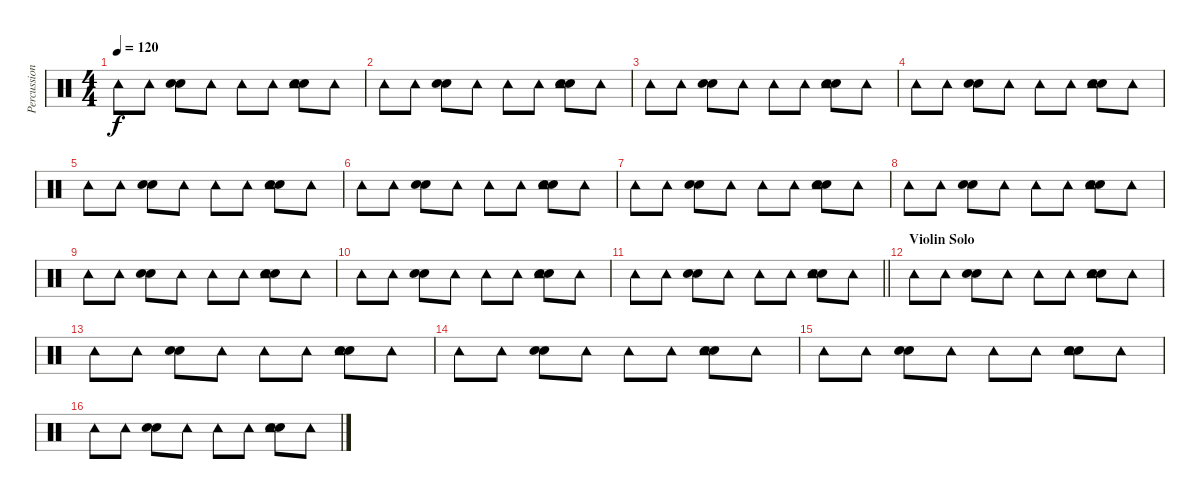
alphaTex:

\track ("Percussion" "Percussion") {instrument percussion}
\staff {score}
\articulation defaults
\ts (4 4)
\tempo 120
\clef neutral
\ks c "Tambourine (hit)".8{dy f} "Tambourine (hit)".8
("Snare (hit) 2" "Snare (hit) 2").8 "Tambourine (hit)".8 "Tambourine (hit)".8 "Tambourine (hit)".8 ("Snare (hit) 2" "Snare (hit) 2" "Tambourine (hit)").8 "Tambourine (hit)".8 |
"Tambourine (hit)".8 "Tambourine (hit)".8 ("Snare (hit) 2" "Snare (hit) 2").8 "Tambourine (hit)".8 "Tambourine (hit)".8 "Tambourine (hit)".8 ("Snare (hit) 2" "Snare (hit) 2" "Tambourine (hit)").8 "Tambourine (hit)".8 |
"Tambourine (hit)".8 "Tambourine (hit)".8 ("Snare (hit) 2" "Snare (hit) 2").8 "Tambourine (hit)".8 "Tambourine (hit)".8 "Tambourine (hit)".8 ("Snare (hit) 2" "Snare (hit) 2" "Tambourine (hit)").8 "Tambourine (hit)".8 |
"Tambourine (hit)".8 "Tambourine (hit)".8 ("Snare (hit) 2" "Snare (hit) 2").8 "Tambourine (hit)".8 "Tambourine (hit)".8 "Tambourine (hit)".8 ("Snare (hit) 2" "Snare (hit) 2" "Tambourine (hit)").8 "Tambourine (hit)".8 |
"Tambourine (hit)".8 "Tambourine (hit)".8 ("Snare (hit) 2" "Snare (hit) 2").8 "Tambourine (hit)".8 "Tambourine (hit)".8 "Tambourine (hit)".8 ("Snare (hit) 2" "Snare (hit) 2" "Tambourine (hit)").8 "Tambourine (hit)".8 |
"Tambourine (hit)".8 "Tambourine (hit)".8 ("Snare (hit) 2" "Snare (hit) 2").8 "Tambourine (hit)".8 "Tambourine (hit)".8 "Tambourine (hit)".8 ("Snare (hit) 2" "Snare (hit) 2" "Tambourine (hit)").8 "Tambourine (hit)".8 |
"Tambourine (hit)".8 "Tambourine (hit)".8 ("Snare (hit) 2" "Snare (hit) 2").8 "Tambourine (hit)".8 "Tambourine (hit)".8 "Tambourine (hit)".8 ("Snare (hit) 2" "Snare (hit) 2" "Tambourine (hit)").8 "Tambourine (hit)".8 |
"Tambourine (hit)".8 "Tambourine (hit)".8 ("Snare (hit) 2" "Snare (hit) 2").8 "Tambourine (hit)".8 "Tambourine (hit)".8 "Tambourine (hit)".8 ("Snare (hit) 2" "Snare (hit) 2" "Tambourine (hit)").8 "Tambourine (hit)".8 |
"Tambourine (hit)".8 "Tambourine (hit)".8 ("Snare (hit) 2" "Snare (hit) 2").8 "Tambourine (hit)".8 "Tambourine (hit)".8 "Tambourine (hit)".8 ("Snare (hit) 2" "Snare (hit) 2" "Tambourine (hit)").8 "Tambourine (hit)".8 |
"Tambourine (hit)".8 "Tambourine (hit)".8 ("Snare (hit) 2" "Snare (hit) 2").8 "Tambourine (hit)".8 "Tambourine (hit)".8 "Tambourine (hit)".8 ("Snare (hit) 2" "Snare (hit) 2" "Tambourine (hit)").8 "Tambourine (hit)".8 |
\barLineRight lightlight "Tambourine (hit)".8 "Tambourine (hit)".8
("Snare (hit) 2" "Snare (hit) 2").8 "Tambourine (hit)".8 "Tambourine (hit)".8 "Tambourine (hit)".8 ("Snare (hit) 2" "Snare (hit) 2" "Tambourine (hit)").8 "Tambourine (hit)".8 |
\section ("" "Violin Solo")
"Tambourine (hit)".8 "Tambourine (hit)".8 ("Snare (hit) 2" "Snare (hit) 2").8 "Tambourine (hit)".8 "Tambourine (hit)".8 "Tambourine (hit)".8 ("Snare (hit) 2" "Snare (hit) 2" "Tambourine (hit)").8 "Tambourine (hit)".8 |
"Tambourine (hit)".8 "Tambourine (hit)".8 ("Snare (hit) 2" "Snare (hit) 2").8 "Tambourine (hit)".8 "Tambourine (hit)".8 "Tambourine (hit)".8 ("Snare (hit) 2" "Snare (hit) 2" "Tambourine (hit)").8 "Tambourine (hit)".8 |
"Tambourine (hit)".8 "Tambourine (hit)".8 ("Snare (hit) 2" "Snare (hit) 2").8 "Tambourine (hit)".8 "Tambourine (hit)".8 "Tambourine (hit)".8 ("Snare (hit) 2" "Snare (hit) 2" "Tambourine (hit)").8 "Tambourine (hit)".8 |
"Tambourine (hit)".8 "Tambourine (hit)".8 ("Snare (hit) 2" "Snare (hit) 2").8 "Tambourine (hit)".8 "Tambourine (hit)".8 "Tambourine (hit)".8 ("Snare (hit) 2" "Snare (hit) 2" "Tambourine (hit)").8 "Tambourine (hit)".8 |
"Tambourine (hit)".8 "Tambourine (hit)".8 ("Snare (hit) 2" "Snare (hit) 2").8 "Tambourine (hit)".8 "Tambourine (hit)".8 "Tambourine (hit)".8 ("Snare (hit) 2" "Snare (hit) 2" "Tambourine (hit)").8 "Tambourine (hit)".8
